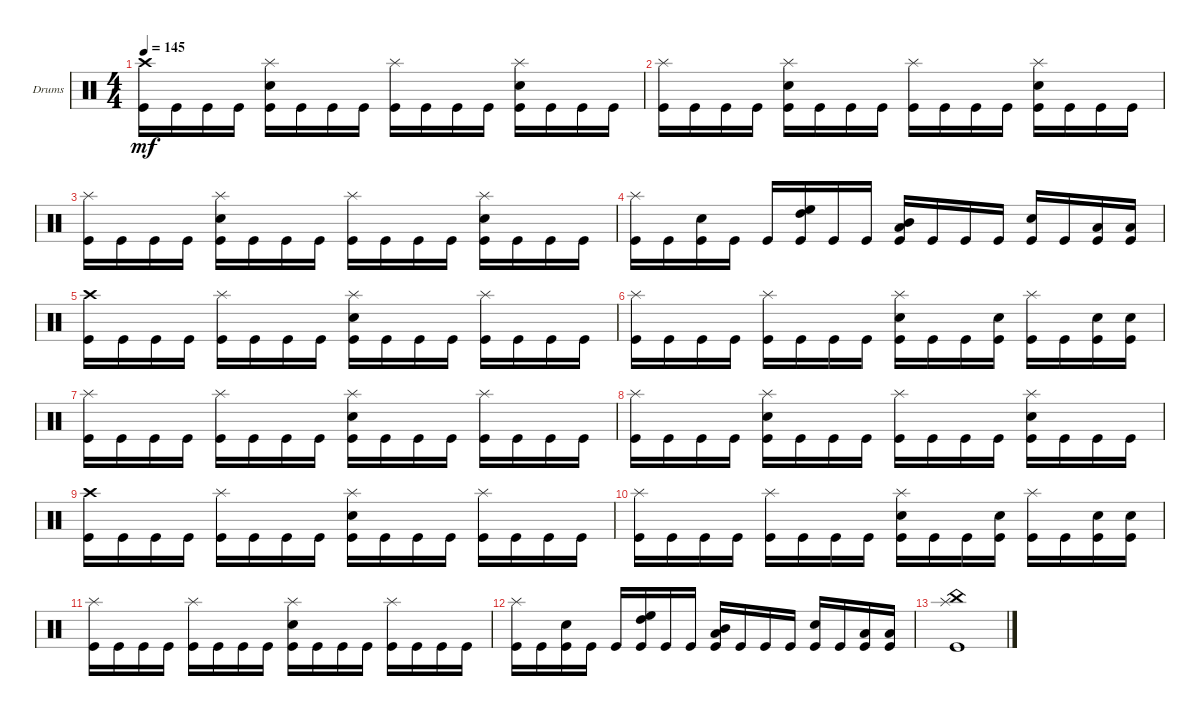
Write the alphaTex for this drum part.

\bracketExtendMode groupsimilarinstruments
\firstSystemTrackNameOrientation horizontal
\otherSystemsTrackNameOrientation horizontal
\track ("Drumkit" "Drums") {instrument percussion}
\staff {score}
\articulation defaults
\ts (4 4)
\tempo 145
\clef neutral
\ks c
("Kick (hit)" "Crash high (hit)").16{dy mf} "Kick (hit)".16 "Kick (hit)".16 "Kick (hit)".16 ("Kick (hit)" "Snare (hit) 2" "Splash (hit)").16 "Kick (hit)".16 "Kick (hit)".16 "Kick (hit)".16 ("Kick (hit)" "Splash (hit)").16 "Kick (hit)".16 "Kick (hit)".16 "Kick (hit)".16 ("Kick (hit)" "Snare (hit) 2" "Splash (hit)").16 "Kick (hit)".16 "Kick (hit)".16 "Kick (hit)".16 |
("Kick (hit)" "Splash (hit)").16 "Kick (hit)".16 "Kick (hit)".16 "Kick (hit)".16 ("Kick (hit)" "Snare (hit) 2" "Splash (hit)").16 "Kick (hit)".16 "Kick (hit)".16 "Kick (hit)".16 ("Kick (hit)" "Splash (hit)").16 "Kick (hit)".16 "Kick (hit)".16 "Kick (hit)".16 ("Kick (hit)" "Snare (hit) 2" "Splash (hit)").16 "Kick (hit)".16 "Kick (hit)".16 "Kick (hit)".16 |
("Kick (hit)" "Splash (hit)").16 "Kick (hit)".16 "Kick (hit)".16 "Kick (hit)".16 ("Kick (hit)" "Snare (hit) 2" "Splash (hit)").16 "Kick (hit)".16 "Kick (hit)".16 "Kick (hit)".16 ("Kick (hit)" "Splash (hit)").16 "Kick (hit)".16 "Kick (hit)".16 "Kick (hit)".16 ("Kick (hit)" "Snare (hit) 2" "Splash (hit)").16 "Kick (hit)".16 "Kick (hit)".16 "Kick (hit)".16 |
("Kick (hit)" "Splash (hit)").16 "Kick (hit)".16 ("Snare (hit) 2" "Kick (hit)").16 "Kick (hit)".16 "Kick (hit)".16 ("High Tom (hit)" "High Floor Tom (hit)" "Kick (hit)").16 "Kick (hit)".16 "Kick (hit)".16 ("Mid Tom (hit)" "Low Tom (hit)" "Kick (hit)").16 "Kick (hit)".16 "Kick (hit)".16 "Kick (hit)".16 ("Snare (hit) 2" "Kick (hit)").16 "Kick (hit)".16 ("Low Tom (hit)" "Kick (hit)").16 ("Low Tom (hit)" "Kick (hit)").16 |
("Kick (hit)" "Crash high (hit)").16 "Kick (hit)".16 "Kick (hit)".16 "Kick (hit)".16 ("Kick (hit)" "Splash (hit)").16 "Kick (hit)".16 "Kick (hit)".16 "Kick (hit)".16 ("Kick (hit)" "Splash (hit)" "Snare (hit) 2").16 "Kick (hit)".16 "Kick (hit)".16 "Kick (hit)".16 ("Kick (hit)" "Splash (hit)").16 "Kick (hit)".16 "Kick (hit)".16 "Kick (hit)".16 |
("Kick (hit)" "Splash (hit)").16 "Kick (hit)".16 "Kick (hit)".16 "Kick (hit)".16 ("Kick (hit)" "Splash (hit)").16 "Kick (hit)".16 "Kick (hit)".16 "Kick (hit)".16 ("Kick (hit)" "Splash (hit)" "Snare (hit) 2").16 "Kick (hit)".16 "Kick (hit)".16 ("Kick (hit)" "Snare (hit) 2").16 ("Kick (hit)" "Splash (hit)").16 "Kick (hit)".16 ("Kick (hit)" "Snare (hit) 2").16 ("Kick (hit)" "Snare (hit) 2").16 |
("Kick (hit)" "Splash (hit)").16 "Kick (hit)".16 "Kick (hit)".16 "Kick (hit)".16 ("Kick (hit)" "Splash (hit)").16 "Kick (hit)".16 "Kick (hit)".16 "Kick (hit)".16 ("Kick (hit)" "Splash (hit)" "Snare (hit) 2").16 "Kick (hit)".16 "Kick (hit)".16 "Kick (hit)".16 ("Kick (hit)" "Splash (hit)").16 "Kick (hit)".16 "Kick (hit)".16 "Kick (hit)".16 |
("Kick (hit)" "Splash (hit)").16 "Kick (hit)".16 "Kick (hit)".16 "Kick (hit)".16 ("Kick (hit)" "Snare (hit) 2" "Splash (hit)").16 "Kick (hit)".16 "Kick (hit)".16 "Kick (hit)".16 ("Kick (hit)" "Splash (hit)").16 "Kick (hit)".16 "Kick (hit)".16 "Kick (hit)".16 ("Kick (hit)" "Snare (hit) 2" "Splash (hit)").16 "Kick (hit)".16 "Kick (hit)".16 "Kick (hit)".16 |
("Kick (hit)" "Crash high (hit)").16 "Kick (hit)".16 "Kick (hit)".16 "Kick (hit)".16 ("Kick (hit)" "Splash (hit)").16 "Kick (hit)".16 "Kick (hit)".16 "Kick (hit)".16 ("Kick (hit)" "Splash (hit)" "Snare (hit) 2").16 "Kick (hit)".16 "Kick (hit)".16 "Kick (hit)".16 ("Kick (hit)" "Splash (hit)").16 "Kick (hit)".16 "Kick (hit)".16 "Kick (hit)".16 |
("Kick (hit)" "Splash (hit)").16 "Kick (hit)".16 "Kick (hit)".16 "Kick (hit)".16 ("Kick (hit)" "Splash (hit)").16 "Kick (hit)".16 "Kick (hit)".16 "Kick (hit)".16 ("Kick (hit)" "Splash (hit)" "Snare (hit) 2").16 "Kick (hit)".16 "Kick (hit)".16 ("Kick (hit)" "Snare (hit) 2").16 ("Kick (hit)" "Splash (hit)").16 "Kick (hit)".16 ("Kick (hit)" "Snare (hit) 2").16 ("Kick (hit)" "Snare (hit) 2").16 |
("Kick (hit)" "Splash (hit)").16 "Kick (hit)".16 "Kick (hit)".16 "Kick (hit)".16 ("Kick (hit)" "Splash (hit)").16 "Kick (hit)".16 "Kick (hit)".16 "Kick (hit)".16 ("Kick (hit)" "Splash (hit)" "Snare (hit) 2").16 "Kick (hit)".16 "Kick (hit)".16 "Kick (hit)".16 ("Kick (hit)" "Splash (hit)").16 "Kick (hit)".16 "Kick (hit)".16 "Kick (hit)".16 |
("Kick (hit)" "Splash (hit)").16 "Kick (hit)".16 ("Snare (hit) 2" "Kick (hit)").16 "Kick (hit)".16 "Kick (hit)".16 ("High Tom (hit)" "High Floor Tom (hit)" "Kick (hit)").16 "Kick (hit)".16 "Kick (hit)".16 ("Mid Tom (hit)" "Low Tom (hit)" "Kick (hit)").16 "Kick (hit)".16 "Kick (hit)".16 "Kick (hit)".16 ("Snare (hit) 2" "Kick (hit)").16 "Kick (hit)".16 ("Low Tom (hit)" "Kick (hit)").16 ("Low Tom (hit)" "Kick (hit)").16 |
("Kick (hit)" "China (hit)" "Splash (hit)").1
